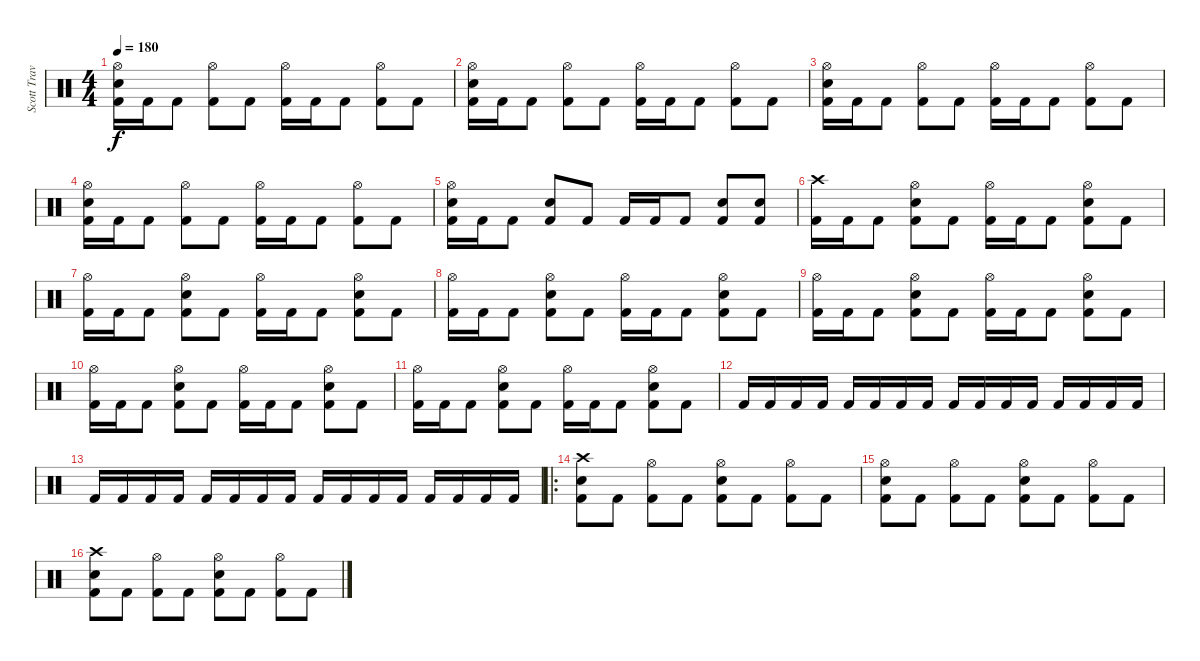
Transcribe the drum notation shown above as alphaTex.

\track ("Scott Travis" "Scott Trav") {instrument percussion}
\staff {score}
\articulation defaults
\ts (4 4)
\tempo 180
\clef neutral
\ks c
("Hi-Hat (open)" "Snare (hit) 2" "Kick (hit) 2").16{dy f} "Kick (hit) 2".16 "Kick (hit) 2".8 ("Hi-Hat (open)" "Kick (hit) 2").8 "Kick (hit) 2".8 ("Hi-Hat (open)" "Kick (hit) 2").16 "Kick (hit) 2".16 "Kick (hit) 2".8 ("Hi-Hat (open)" "Kick (hit) 2").8 "Kick (hit) 2".8 |
("Hi-Hat (open)" "Snare (hit) 2" "Kick (hit) 2").16 "Kick (hit) 2".16 "Kick (hit) 2".8 ("Hi-Hat (open)" "Kick (hit) 2").8 "Kick (hit) 2".8 ("Hi-Hat (open)" "Kick (hit) 2").16 "Kick (hit) 2".16 "Kick (hit) 2".8 ("Hi-Hat (open)" "Kick (hit) 2").8 "Kick (hit) 2".8 |
("Hi-Hat (open)" "Snare (hit) 2" "Kick (hit) 2").16 "Kick (hit) 2".16 "Kick (hit) 2".8 ("Hi-Hat (open)" "Kick (hit) 2").8 "Kick (hit) 2".8 ("Hi-Hat (open)" "Kick (hit) 2").16 "Kick (hit) 2".16 "Kick (hit) 2".8 ("Hi-Hat (open)" "Kick (hit) 2").8 "Kick (hit) 2".8 |
("Hi-Hat (open)" "Snare (hit) 2" "Kick (hit) 2").16 "Kick (hit) 2".16 "Kick (hit) 2".8 ("Hi-Hat (open)" "Kick (hit) 2").8 "Kick (hit) 2".8 ("Hi-Hat (open)" "Kick (hit) 2").16 "Kick (hit) 2".16 "Kick (hit) 2".8 ("Hi-Hat (open)" "Kick (hit) 2").8 "Kick (hit) 2".8 |
("Hi-Hat (open)" "Snare (hit) 2" "Kick (hit) 2").16 "Kick (hit) 2".16 "Kick (hit) 2".8 ("Snare (hit) 2" "Kick (hit) 2").8 "Kick (hit) 2".8 "Kick (hit) 2".16 "Kick (hit) 2".16 "Kick (hit) 2".8 ("Snare (hit) 2" "Kick (hit) 2").8 ("Snare (hit) 2" "Kick (hit) 2").8 |
("Crash high (hit)" "Kick (hit) 2").16 "Kick (hit) 2".16 "Kick (hit) 2".8 ("Hi-Hat (open)" "Snare (hit) 2" "Kick (hit) 2").8 "Kick (hit) 2".8 ("Hi-Hat (open)" "Kick (hit) 2").16 "Kick (hit) 2".16 "Kick (hit) 2".8 ("Hi-Hat (open)" "Snare (hit) 2" "Kick (hit) 2").8 "Kick (hit) 2".8 |
("Hi-Hat (open)" "Kick (hit) 2").16 "Kick (hit) 2".16 "Kick (hit) 2".8 ("Hi-Hat (open)" "Snare (hit) 2" "Kick (hit) 2").8 "Kick (hit) 2".8 ("Hi-Hat (open)" "Kick (hit) 2").16 "Kick (hit) 2".16 "Kick (hit) 2".8 ("Hi-Hat (open)" "Snare (hit) 2" "Kick (hit) 2").8 "Kick (hit) 2".8 |
("Hi-Hat (open)" "Kick (hit) 2").16 "Kick (hit) 2".16 "Kick (hit) 2".8 ("Hi-Hat (open)" "Snare (hit) 2" "Kick (hit) 2").8 "Kick (hit) 2".8 ("Hi-Hat (open)" "Kick (hit) 2").16 "Kick (hit) 2".16 "Kick (hit) 2".8 ("Hi-Hat (open)" "Snare (hit) 2" "Kick (hit) 2").8 "Kick (hit) 2".8 |
("Hi-Hat (open)" "Kick (hit) 2").16 "Kick (hit) 2".16 "Kick (hit) 2".8 ("Hi-Hat (open)" "Snare (hit) 2" "Kick (hit) 2").8 "Kick (hit) 2".8 ("Hi-Hat (open)" "Kick (hit) 2").16 "Kick (hit) 2".16 "Kick (hit) 2".8 ("Hi-Hat (open)" "Snare (hit) 2" "Kick (hit) 2").8 "Kick (hit) 2".8 |
("Hi-Hat (open)" "Kick (hit) 2").16 "Kick (hit) 2".16 "Kick (hit) 2".8 ("Hi-Hat (open)" "Snare (hit) 2" "Kick (hit) 2").8 "Kick (hit) 2".8 ("Hi-Hat (open)" "Kick (hit) 2").16 "Kick (hit) 2".16 "Kick (hit) 2".8 ("Hi-Hat (open)" "Snare (hit) 2" "Kick (hit) 2").8 "Kick (hit) 2".8 |
("Hi-Hat (open)" "Kick (hit) 2").16 "Kick (hit) 2".16 "Kick (hit) 2".8 ("Hi-Hat (open)" "Snare (hit) 2" "Kick (hit) 2").8 "Kick (hit) 2".8 ("Hi-Hat (open)" "Kick (hit) 2").16 "Kick (hit) 2".16 "Kick (hit) 2".8 ("Hi-Hat (open)" "Snare (hit) 2" "Kick (hit) 2").8 "Kick (hit) 2".8 |
"Kick (hit) 2".16 "Kick (hit) 2".16 "Kick (hit) 2".16 "Kick (hit) 2".16 "Kick (hit) 2".16 "Kick (hit) 2".16 "Kick (hit) 2".16 "Kick (hit) 2".16 "Kick (hit) 2".16 "Kick (hit) 2".16 "Kick (hit) 2".16 "Kick (hit) 2".16 "Kick (hit) 2".16 "Kick (hit) 2".16 "Kick (hit) 2".16 "Kick (hit) 2".16 |
"Kick (hit) 2".16 "Kick (hit) 2".16 "Kick (hit) 2".16 "Kick (hit) 2".16 "Kick (hit) 2".16 "Kick (hit) 2".16 "Kick (hit) 2".16 "Kick (hit) 2".16 "Kick (hit) 2".16 "Kick (hit) 2".16 "Kick (hit) 2".16 "Kick (hit) 2".16 "Kick (hit) 2".16 "Kick (hit) 2".16 "Kick (hit) 2".16 "Kick (hit) 2".16 |
\ro
("Crash high (hit)" "Snare (hit) 2" "Kick (hit) 2").8 "Kick (hit) 2".8 ("Hi-Hat (open)" "Kick (hit) 2").8 "Kick (hit) 2".8 ("Hi-Hat (open)" "Snare (hit) 2" "Kick (hit) 2").8 "Kick (hit) 2".8 ("Hi-Hat (open)" "Kick (hit) 2").8 "Kick (hit) 2".8 |
("Hi-Hat (open)" "Snare (hit) 2" "Kick (hit) 2").8 "Kick (hit) 2".8 ("Hi-Hat (open)" "Kick (hit) 2").8 "Kick (hit) 2".8 ("Hi-Hat (open)" "Snare (hit) 2" "Kick (hit) 2").8 "Kick (hit) 2".8 ("Hi-Hat (open)" "Kick (hit) 2").8 "Kick (hit) 2".8 |
("Crash high (hit)" "Snare (hit) 2" "Kick (hit) 2").8 "Kick (hit) 2".8 ("Hi-Hat (open)" "Kick (hit) 2").8 "Kick (hit) 2".8 ("Hi-Hat (open)" "Snare (hit) 2" "Kick (hit) 2").8 "Kick (hit) 2".8 ("Hi-Hat (open)" "Kick (hit) 2").8 "Kick (hit) 2".8
